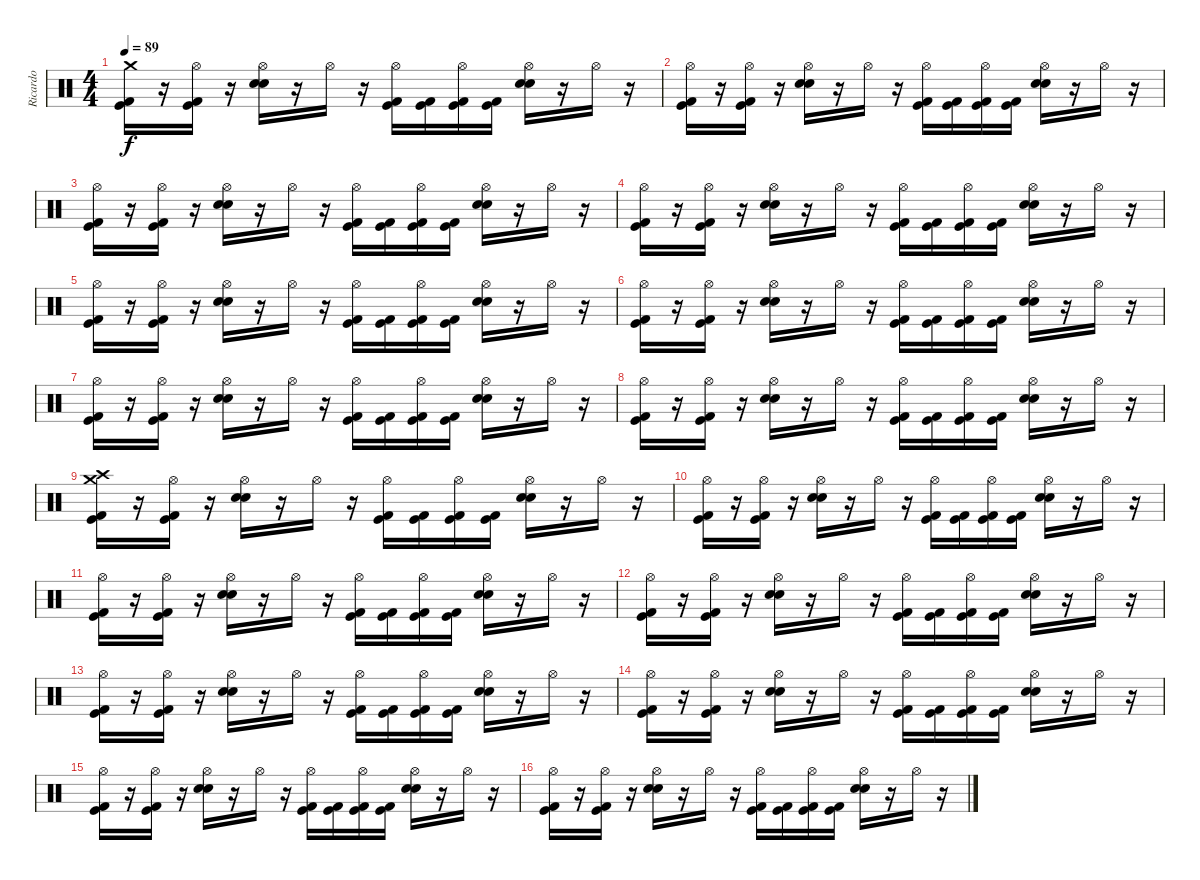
\track ("Ricardo" "Ricardo") {instrument percussion}
\staff {score}
\articulation defaults
\ts (4 4)
\tempo 89
\clef neutral
\ks c
("Crash medium (hit)" "Kick (hit) 2" "Kick (hit)").16{dy f} r.16 ("Hi-Hat (open)" "Kick (hit) 2" "Kick (hit)").16 r.16 ("Hi-Hat (open)" "Electric Snare (hit)" "Snare (hit) 2").16 r.16 "Hi-Hat (open)".16 r.16 ("Hi-Hat (open)" "Kick (hit) 2" "Kick (hit)").16 ("Kick (hit) 2" "Kick (hit)").16 ("Hi-Hat (open)" "Kick (hit) 2" "Kick (hit)").16 ("Kick (hit) 2" "Kick (hit)").16 ("Hi-Hat (open)" "Electric Snare (hit)" "Snare (hit) 2").16 r.16 "Hi-Hat (open)".16 r.16 |
("Hi-Hat (open)" "Kick (hit) 2" "Kick (hit)").16 r.16 ("Hi-Hat (open)" "Kick (hit) 2" "Kick (hit)").16 r.16 ("Hi-Hat (open)" "Electric Snare (hit)" "Snare (hit) 2").16 r.16 "Hi-Hat (open)".16 r.16 ("Hi-Hat (open)" "Kick (hit) 2" "Kick (hit)").16 ("Kick (hit) 2" "Kick (hit)").16 ("Hi-Hat (open)" "Kick (hit) 2" "Kick (hit)").16 ("Kick (hit) 2" "Kick (hit)").16 ("Hi-Hat (open)" "Electric Snare (hit)" "Snare (hit) 2").16 r.16 "Hi-Hat (open)".16 r.16 |
("Hi-Hat (open)" "Kick (hit) 2" "Kick (hit)").16 r.16 ("Hi-Hat (open)" "Kick (hit) 2" "Kick (hit)").16 r.16 ("Hi-Hat (open)" "Electric Snare (hit)" "Snare (hit) 2").16 r.16 "Hi-Hat (open)".16 r.16 ("Hi-Hat (open)" "Kick (hit) 2" "Kick (hit)").16 ("Kick (hit) 2" "Kick (hit)").16 ("Hi-Hat (open)" "Kick (hit) 2" "Kick (hit)").16 ("Kick (hit) 2" "Kick (hit)").16 ("Hi-Hat (open)" "Electric Snare (hit)" "Snare (hit) 2").16 r.16 "Hi-Hat (open)".16 r.16 |
("Hi-Hat (open)" "Kick (hit) 2" "Kick (hit)").16 r.16 ("Hi-Hat (open)" "Kick (hit) 2" "Kick (hit)").16 r.16 ("Hi-Hat (open)" "Electric Snare (hit)" "Snare (hit) 2").16 r.16 "Hi-Hat (open)".16 r.16 ("Hi-Hat (open)" "Kick (hit) 2" "Kick (hit)").16 ("Kick (hit) 2" "Kick (hit)").16 ("Hi-Hat (open)" "Kick (hit) 2" "Kick (hit)").16 ("Kick (hit) 2" "Kick (hit)").16 ("Hi-Hat (open)" "Electric Snare (hit)" "Snare (hit) 2").16 r.16 "Hi-Hat (open)".16 r.16 |
("Hi-Hat (open)" "Kick (hit) 2" "Kick (hit)").16 r.16 ("Hi-Hat (open)" "Kick (hit) 2" "Kick (hit)").16 r.16 ("Hi-Hat (open)" "Electric Snare (hit)" "Snare (hit) 2").16 r.16 "Hi-Hat (open)".16 r.16 ("Hi-Hat (open)" "Kick (hit) 2" "Kick (hit)").16 ("Kick (hit) 2" "Kick (hit)").16 ("Hi-Hat (open)" "Kick (hit) 2" "Kick (hit)").16 ("Kick (hit) 2" "Kick (hit)").16 ("Hi-Hat (open)" "Electric Snare (hit)" "Snare (hit) 2").16 r.16 "Hi-Hat (open)".16 r.16 |
("Hi-Hat (open)" "Kick (hit) 2" "Kick (hit)").16 r.16 ("Hi-Hat (open)" "Kick (hit) 2" "Kick (hit)").16 r.16 ("Hi-Hat (open)" "Electric Snare (hit)" "Snare (hit) 2").16 r.16 "Hi-Hat (open)".16 r.16 ("Hi-Hat (open)" "Kick (hit) 2" "Kick (hit)").16 ("Kick (hit) 2" "Kick (hit)").16 ("Hi-Hat (open)" "Kick (hit) 2" "Kick (hit)").16 ("Kick (hit) 2" "Kick (hit)").16 ("Hi-Hat (open)" "Electric Snare (hit)" "Snare (hit) 2").16 r.16 "Hi-Hat (open)".16 r.16 |
("Hi-Hat (open)" "Kick (hit) 2" "Kick (hit)").16 r.16 ("Hi-Hat (open)" "Kick (hit) 2" "Kick (hit)").16 r.16 ("Hi-Hat (open)" "Electric Snare (hit)" "Snare (hit) 2").16 r.16 "Hi-Hat (open)".16 r.16 ("Hi-Hat (open)" "Kick (hit) 2" "Kick (hit)").16 ("Kick (hit) 2" "Kick (hit)").16 ("Hi-Hat (open)" "Kick (hit) 2" "Kick (hit)").16 ("Kick (hit) 2" "Kick (hit)").16 ("Hi-Hat (open)" "Electric Snare (hit)" "Snare (hit) 2").16 r.16 "Hi-Hat (open)".16 r.16 |
("Hi-Hat (open)" "Kick (hit) 2" "Kick (hit)").16 r.16 ("Hi-Hat (open)" "Kick (hit) 2" "Kick (hit)").16 r.16 ("Hi-Hat (open)" "Electric Snare (hit)" "Snare (hit) 2").16 r.16 "Hi-Hat (open)".16 r.16 ("Hi-Hat (open)" "Kick (hit) 2" "Kick (hit)").16 ("Kick (hit) 2" "Kick (hit)").16 ("Hi-Hat (open)" "Kick (hit) 2" "Kick (hit)").16 ("Kick (hit) 2" "Kick (hit)").16 ("Hi-Hat (open)" "Electric Snare (hit)" "Snare (hit) 2").16 r.16 "Hi-Hat (open)".16 r.16 |
("Crash high (hit)" "Crash medium (hit)" "Kick (hit) 2" "Kick (hit)").16 r.16 ("Hi-Hat (open)" "Kick (hit) 2" "Kick (hit)").16 r.16 ("Hi-Hat (open)" "Electric Snare (hit)" "Snare (hit) 2").16 r.16 "Hi-Hat (open)".16 r.16 ("Hi-Hat (open)" "Kick (hit) 2" "Kick (hit)").16 ("Kick (hit) 2" "Kick (hit)").16 ("Hi-Hat (open)" "Kick (hit) 2" "Kick (hit)").16 ("Kick (hit) 2" "Kick (hit)").16 ("Hi-Hat (open)" "Electric Snare (hit)" "Snare (hit) 2").16 r.16 "Hi-Hat (open)".16 r.16 |
("Hi-Hat (open)" "Kick (hit) 2" "Kick (hit)").16 r.16 ("Hi-Hat (open)" "Kick (hit) 2" "Kick (hit)").16 r.16 ("Hi-Hat (open)" "Electric Snare (hit)" "Snare (hit) 2").16 r.16 "Hi-Hat (open)".16 r.16 ("Hi-Hat (open)" "Kick (hit) 2" "Kick (hit)").16 ("Kick (hit) 2" "Kick (hit)").16 ("Hi-Hat (open)" "Kick (hit) 2" "Kick (hit)").16 ("Kick (hit) 2" "Kick (hit)").16 ("Hi-Hat (open)" "Electric Snare (hit)" "Snare (hit) 2").16 r.16 "Hi-Hat (open)".16 r.16 |
("Hi-Hat (open)" "Kick (hit) 2" "Kick (hit)").16 r.16 ("Hi-Hat (open)" "Kick (hit) 2" "Kick (hit)").16 r.16 ("Hi-Hat (open)" "Electric Snare (hit)" "Snare (hit) 2").16 r.16 "Hi-Hat (open)".16 r.16 ("Hi-Hat (open)" "Kick (hit) 2" "Kick (hit)").16 ("Kick (hit) 2" "Kick (hit)").16 ("Hi-Hat (open)" "Kick (hit) 2" "Kick (hit)").16 ("Kick (hit) 2" "Kick (hit)").16 ("Hi-Hat (open)" "Electric Snare (hit)" "Snare (hit) 2").16 r.16 "Hi-Hat (open)".16 r.16 |
("Hi-Hat (open)" "Kick (hit) 2" "Kick (hit)").16 r.16 ("Hi-Hat (open)" "Kick (hit) 2" "Kick (hit)").16 r.16 ("Hi-Hat (open)" "Electric Snare (hit)" "Snare (hit) 2").16 r.16 "Hi-Hat (open)".16 r.16 ("Hi-Hat (open)" "Kick (hit) 2" "Kick (hit)").16 ("Kick (hit) 2" "Kick (hit)").16 ("Hi-Hat (open)" "Kick (hit) 2" "Kick (hit)").16 ("Kick (hit) 2" "Kick (hit)").16 ("Hi-Hat (open)" "Electric Snare (hit)" "Snare (hit) 2").16 r.16 "Hi-Hat (open)".16 r.16 |
("Hi-Hat (open)" "Kick (hit) 2" "Kick (hit)").16 r.16 ("Hi-Hat (open)" "Kick (hit) 2" "Kick (hit)").16 r.16 ("Hi-Hat (open)" "Electric Snare (hit)" "Snare (hit) 2").16 r.16 "Hi-Hat (open)".16 r.16 ("Hi-Hat (open)" "Kick (hit) 2" "Kick (hit)").16 ("Kick (hit) 2" "Kick (hit)").16 ("Hi-Hat (open)" "Kick (hit) 2" "Kick (hit)").16 ("Kick (hit) 2" "Kick (hit)").16 ("Hi-Hat (open)" "Electric Snare (hit)" "Snare (hit) 2").16 r.16 "Hi-Hat (open)".16 r.16 |
("Hi-Hat (open)" "Kick (hit) 2" "Kick (hit)").16 r.16 ("Hi-Hat (open)" "Kick (hit) 2" "Kick (hit)").16 r.16 ("Hi-Hat (open)" "Electric Snare (hit)" "Snare (hit) 2").16 r.16 "Hi-Hat (open)".16 r.16 ("Hi-Hat (open)" "Kick (hit) 2" "Kick (hit)").16 ("Kick (hit) 2" "Kick (hit)").16 ("Hi-Hat (open)" "Kick (hit) 2" "Kick (hit)").16 ("Kick (hit) 2" "Kick (hit)").16 ("Hi-Hat (open)" "Electric Snare (hit)" "Snare (hit) 2").16 r.16 "Hi-Hat (open)".16 r.16 |
("Hi-Hat (open)" "Kick (hit) 2" "Kick (hit)").16 r.16 ("Hi-Hat (open)" "Kick (hit) 2" "Kick (hit)").16 r.16 ("Hi-Hat (open)" "Electric Snare (hit)" "Snare (hit) 2").16 r.16 "Hi-Hat (open)".16 r.16 ("Hi-Hat (open)" "Kick (hit) 2" "Kick (hit)").16 ("Kick (hit) 2" "Kick (hit)").16 ("Hi-Hat (open)" "Kick (hit) 2" "Kick (hit)").16 ("Kick (hit) 2" "Kick (hit)").16 ("Hi-Hat (open)" "Electric Snare (hit)" "Snare (hit) 2").16 r.16 "Hi-Hat (open)".16 r.16 |
("Hi-Hat (open)" "Kick (hit) 2" "Kick (hit)").16 r.16 ("Hi-Hat (open)" "Kick (hit) 2" "Kick (hit)").16 r.16 ("Hi-Hat (open)" "Electric Snare (hit)" "Snare (hit) 2").16 r.16 "Hi-Hat (open)".16 r.16 ("Hi-Hat (open)" "Kick (hit) 2" "Kick (hit)").16 ("Kick (hit) 2" "Kick (hit)").16 ("Hi-Hat (open)" "Kick (hit) 2" "Kick (hit)").16 ("Kick (hit) 2" "Kick (hit)").16 ("Hi-Hat (open)" "Electric Snare (hit)" "Snare (hit) 2").16 r.16 "Hi-Hat (open)".16 r.16
